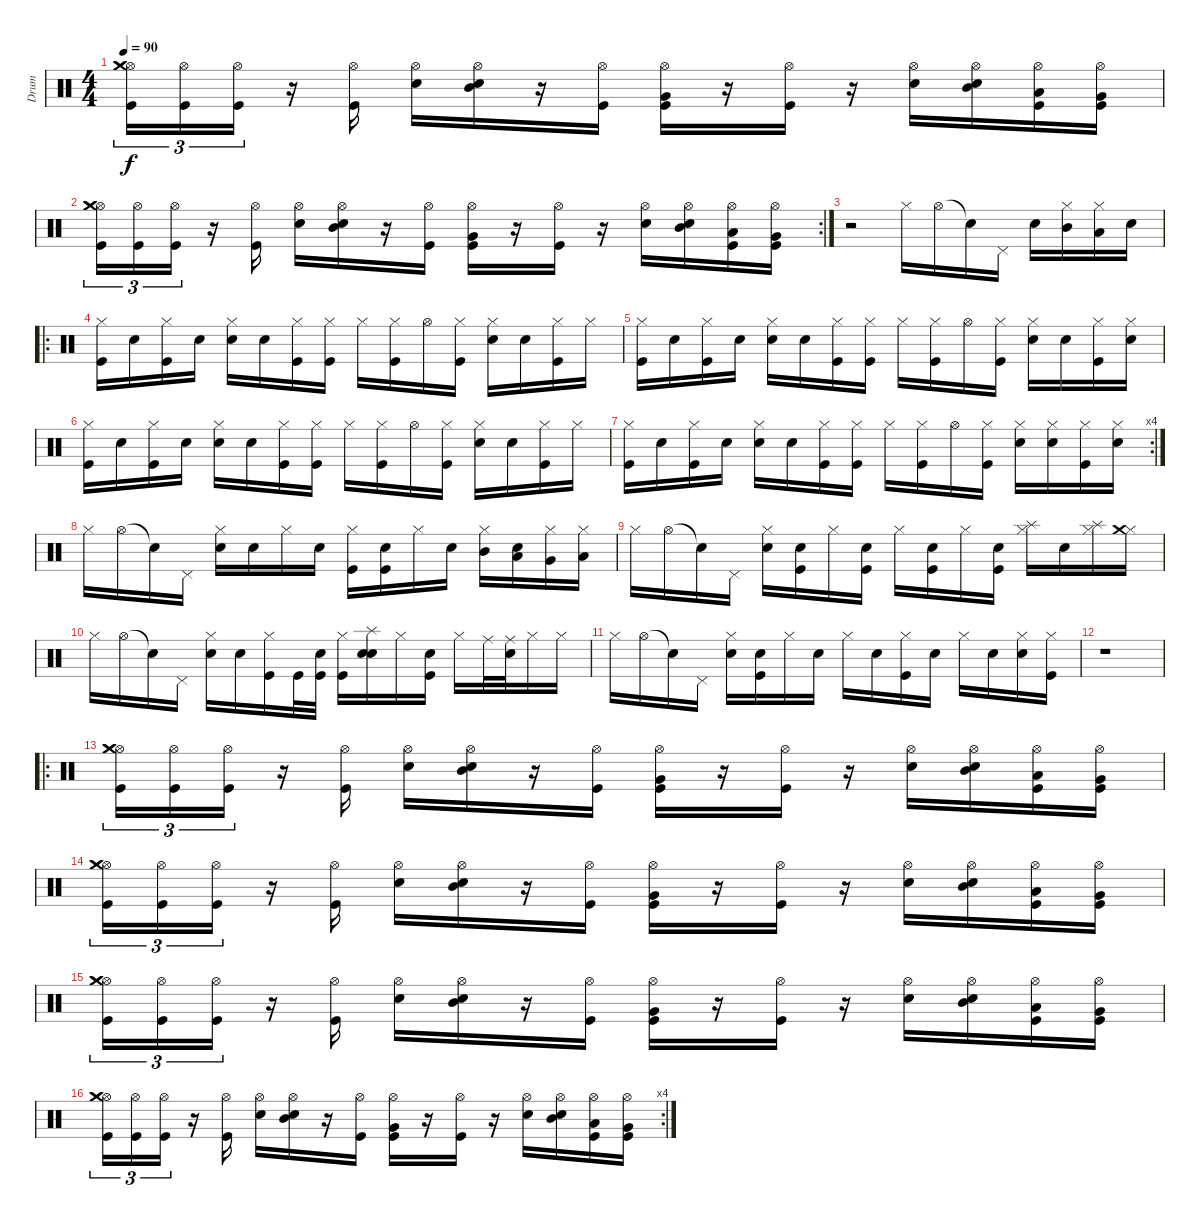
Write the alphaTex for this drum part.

\track ("Drum" "Drum") {instrument percussion}
\staff {score}
\articulation defaults
\ts (4 4)
\tempo 90
\clef neutral
\ks c
("Hi-Hat (open)" "Crash medium (hit)" "Crash medium (hit)" "Kick (hit)").16{tu (3 2) dy f} ("Hi-Hat (open)" "Kick (hit)").16{tu (3 2)} ("Hi-Hat (open)" "Kick (hit)").16{tu (3 2)} r.16 ("Hi-Hat (open)" "Kick (hit)").16 ("Hi-Hat (open)" "Snare (hit) 2").16 ("Hi-Hat (open)" "Mid Tom (hit)" "Snare (hit) 2").16 r.16 ("Hi-Hat (open)" "Kick (hit)").16 ("Hi-Hat (open)" "Very Low Tom (hit)" "Kick (hit)").16 r.16 ("Hi-Hat (open)" "Kick (hit)").16 r.16 ("Hi-Hat (open)" "Snare (hit) 2").16 ("Hi-Hat (open)" "Mid Tom (hit)" "Snare (hit) 2").16 ("Hi-Hat (open)" "Low Tom (hit)" "Kick (hit)").16 ("Hi-Hat (open)" "Very Low Tom (hit)" "Kick (hit)").16 |
\rc 2
("Hi-Hat (open)" "Crash medium (hit)" "Crash medium (hit)" "Kick (hit)").16{tu (3 2)} ("Hi-Hat (open)" "Kick (hit)").16{tu (3 2)} ("Hi-Hat (open)" "Kick (hit)").16{tu (3 2)} r.16 ("Hi-Hat (open)" "Kick (hit)").16 ("Hi-Hat (open)" "Snare (hit) 2").16 ("Hi-Hat (open)" "Mid Tom (hit)" "Snare (hit) 2").16 r.16 ("Hi-Hat (open)" "Kick (hit)").16 ("Hi-Hat (open)" "Very Low Tom (hit)" "Kick (hit)").16 r.16 ("Hi-Hat (open)" "Kick (hit)").16 r.16 ("Hi-Hat (open)" "Snare (hit) 2").16 ("Hi-Hat (open)" "Mid Tom (hit)" "Snare (hit) 2").16 ("Hi-Hat (open)" "Low Tom (hit)" "Kick (hit)").16 ("Hi-Hat (open)" "Very Low Tom (hit)" "Kick (hit)").16 |
r.2 "Hi-Hat (closed)".16 "Hi-Hat (open)".16 "Snare (hit)"{t}.16 "Pedal Hi-Hat (hit)".16 "Snare (hit)".16 ("Hi-Hat (closed)" "Mid Tom (hit)").16 ("Hi-Hat (closed)" "Low Tom (hit)").16 "Snare (hit)".16 |
\ro
("Hi-Hat (closed)" "Kick (hit)").16 "Snare (hit)".16 ("Hi-Hat (closed)" "Kick (hit)").16 "Snare (hit)".16 ("Hi-Hat (closed)" "Snare (hit) 2").16 "Snare (hit)".16 ("Hi-Hat (closed)" "Kick (hit)").16 ("Hi-Hat (closed)" "Kick (hit)").16 "Hi-Hat (closed)".16 ("Hi-Hat (closed)" "Kick (hit)").16 "Hi-Hat (open)".16 ("Hi-Hat (closed)" "Kick (hit)").16 ("Hi-Hat (closed)" "Snare (hit) 2").16 "Snare (hit)".16 ("Hi-Hat (closed)" "Kick (hit)").16 "Hi-Hat (closed)".16 |
("Hi-Hat (closed)" "Kick (hit)").16 "Snare (hit)".16 ("Hi-Hat (closed)" "Kick (hit)").16 "Snare (hit)".16 ("Hi-Hat (closed)" "Snare (hit) 2").16 "Snare (hit)".16 ("Hi-Hat (closed)" "Kick (hit)").16 ("Hi-Hat (closed)" "Kick (hit)").16 "Hi-Hat (closed)".16 ("Hi-Hat (closed)" "Kick (hit)").16 "Hi-Hat (open)".16 ("Hi-Hat (closed)" "Kick (hit)").16 ("Hi-Hat (closed)" "Snare (hit) 2").16 "Snare (hit)".16 ("Hi-Hat (closed)" "Kick (hit)").16 ("Hi-Hat (closed)" "Snare (hit) 2").16 |
("Hi-Hat (closed)" "Kick (hit)").16 "Snare (hit)".16 ("Hi-Hat (closed)" "Kick (hit)").16 "Snare (hit)".16 ("Hi-Hat (closed)" "Snare (hit) 2").16 "Snare (hit)".16 ("Hi-Hat (closed)" "Kick (hit)").16 ("Hi-Hat (closed)" "Kick (hit)").16 "Hi-Hat (closed)".16 ("Hi-Hat (closed)" "Kick (hit)").16 "Hi-Hat (open)".16 ("Hi-Hat (closed)" "Kick (hit)").16 ("Hi-Hat (closed)" "Snare (hit) 2").16 "Snare (hit)".16 ("Hi-Hat (closed)" "Kick (hit)").16 "Hi-Hat (closed)".16 |
\rc 4
("Hi-Hat (closed)" "Kick (hit)").16 "Snare (hit)".16 ("Hi-Hat (closed)" "Kick (hit)").16 "Snare (hit)".16 ("Hi-Hat (closed)" "Snare (hit) 2").16 "Snare (hit)".16 ("Hi-Hat (closed)" "Kick (hit)").16 ("Hi-Hat (closed)" "Kick (hit)").16 "Hi-Hat (closed)".16 ("Hi-Hat (closed)" "Kick (hit)").16 "Hi-Hat (open)".16 ("Hi-Hat (closed)" "Kick (hit)").16 ("Hi-Hat (closed)" "Snare (hit) 2").16 ("Hi-Hat (closed)" "Snare (hit) 2").16 ("Hi-Hat (closed)" "Kick (hit)").16 ("Hi-Hat (closed)" "Snare (hit) 2").16 |
"Hi-Hat (closed)".16 "Hi-Hat (open)".16 "Snare (hit)"{t}.16 "Pedal Hi-Hat (hit)".16 ("Hi-Hat (closed)" "Snare (hit) 2").16 "Snare (hit)".16 "Hi-Hat (closed)".16 "Snare (hit)".16 ("Hi-Hat (closed)" "Kick (hit)").16 ("Snare (hit)" "Kick (hit)").16 "Hi-Hat (closed)".16 "Snare (hit)".16 ("Hi-Hat (closed)" "Mid Tom (hit)").16 ("Snare (hit)" "Low Tom (hit)").16 ("Hi-Hat (closed)" "Very Low Tom (hit)").16 ("Hi-Hat (closed)" "Low Floor Tom (hit)").16 |
"Hi-Hat (closed)".16 "Hi-Hat (open)".16 "Snare (hit)"{t}.16 "Pedal Hi-Hat (hit)".16 ("Hi-Hat (closed)" "Snare (hit) 2").16 ("Snare (hit)" "Kick (hit)").16 "Hi-Hat (closed)".16 ("Snare (hit)" "Kick (hit)").16 "Hi-Hat (closed)".16 ("Snare (hit)" "Kick (hit)").16 "Hi-Hat (closed)".16 ("Snare (hit)" "Kick (hit)").16 ("Hi-Hat (closed)" "Splash (hit)").16 "Snare (hit)".16 ("Hi-Hat (closed)" "Splash (hit)").16 ("Hi-Hat (closed)" "Crash medium (hit)").16 |
"Hi-Hat (closed)".16 "Hi-Hat (open)".16 "Snare (hit)"{t}.16 "Pedal Hi-Hat (hit)".16 ("Hi-Hat (closed)" "Snare (hit) 2").16 "Snare (hit)".16 ("Hi-Hat (closed)" "Kick (hit)").16 "Kick (hit)".32 ("Snare (hit)" "Kick (hit)").32 ("Hi-Hat (closed)" "Kick (hit)").16 ("Snare (hit)" "Splash (hit)" "Snare (hit) 2").16 "Hi-Hat (closed)".16 ("Snare (hit)" "Kick (hit)").16 "Hi-Hat (closed)".16 "Ride (middle)".32 ("Snare (hit)" "Ride (middle)").32 "Hi-Hat (closed)".16 "Hi-Hat (closed)".16 |
"Hi-Hat (closed)".16 "Hi-Hat (open)".16 "Snare (hit)"{t}.16 "Pedal Hi-Hat (hit)".16 ("Hi-Hat (closed)" "Snare (hit) 2").16 ("Snare (hit)" "Kick (hit)").16 "Hi-Hat (closed)".16 "Snare (hit)".16 "Hi-Hat (closed)".16 "Snare (hit)".16 ("Hi-Hat (closed)" "Kick (hit)").16 "Snare (hit)".16 "Hi-Hat (closed)".16 "Snare (hit)".16 ("Hi-Hat (closed)" "Snare (hit) 2").16 ("Hi-Hat (closed)" "Kick (hit)").16 |
r.1 |
\ro
("Hi-Hat (open)" "Crash medium (hit)" "Crash medium (hit)" "Kick (hit)").16{tu (3 2)} ("Hi-Hat (open)" "Kick (hit)").16{tu (3 2)} ("Hi-Hat (open)" "Kick (hit)").16{tu (3 2)} r.16 ("Hi-Hat (open)" "Kick (hit)").16 ("Hi-Hat (open)" "Snare (hit) 2").16 ("Hi-Hat (open)" "Mid Tom (hit)" "Snare (hit) 2").16 r.16 ("Hi-Hat (open)" "Kick (hit)").16 ("Hi-Hat (open)" "Very Low Tom (hit)" "Kick (hit)").16 r.16 ("Hi-Hat (open)" "Kick (hit)").16 r.16 ("Hi-Hat (open)" "Snare (hit) 2").16 ("Hi-Hat (open)" "Mid Tom (hit)" "Snare (hit) 2").16 ("Hi-Hat (open)" "Low Tom (hit)" "Kick (hit)").16 ("Hi-Hat (open)" "Very Low Tom (hit)" "Kick (hit)").16 |
("Hi-Hat (open)" "Crash medium (hit)" "Crash medium (hit)" "Kick (hit)").16{tu (3 2)} ("Hi-Hat (open)" "Kick (hit)").16{tu (3 2)} ("Hi-Hat (open)" "Kick (hit)").16{tu (3 2)} r.16 ("Hi-Hat (open)" "Kick (hit)").16 ("Hi-Hat (open)" "Snare (hit) 2").16 ("Hi-Hat (open)" "Mid Tom (hit)" "Snare (hit) 2").16 r.16 ("Hi-Hat (open)" "Kick (hit)").16 ("Hi-Hat (open)" "Very Low Tom (hit)" "Kick (hit)").16 r.16 ("Hi-Hat (open)" "Kick (hit)").16 r.16 ("Hi-Hat (open)" "Snare (hit) 2").16 ("Hi-Hat (open)" "Mid Tom (hit)" "Snare (hit) 2").16 ("Hi-Hat (open)" "Low Tom (hit)" "Kick (hit)").16 ("Hi-Hat (open)" "Very Low Tom (hit)" "Kick (hit)").16 |
("Hi-Hat (open)" "Crash medium (hit)" "Crash medium (hit)" "Kick (hit)").16{tu (3 2)} ("Hi-Hat (open)" "Kick (hit)").16{tu (3 2)} ("Hi-Hat (open)" "Kick (hit)").16{tu (3 2)} r.16 ("Hi-Hat (open)" "Kick (hit)").16 ("Hi-Hat (open)" "Snare (hit) 2").16 ("Hi-Hat (open)" "Mid Tom (hit)" "Snare (hit) 2").16 r.16 ("Hi-Hat (open)" "Kick (hit)").16 ("Hi-Hat (open)" "Very Low Tom (hit)" "Kick (hit)").16 r.16 ("Hi-Hat (open)" "Kick (hit)").16 r.16 ("Hi-Hat (open)" "Snare (hit) 2").16 ("Hi-Hat (open)" "Mid Tom (hit)" "Snare (hit) 2").16 ("Hi-Hat (open)" "Low Tom (hit)" "Kick (hit)").16 ("Hi-Hat (open)" "Very Low Tom (hit)" "Kick (hit)").16 |
\rc 4
("Hi-Hat (open)" "Crash medium (hit)" "Crash medium (hit)" "Kick (hit)").16{tu (3 2)} ("Hi-Hat (open)" "Kick (hit)").16{tu (3 2)} ("Hi-Hat (open)" "Kick (hit)").16{tu (3 2)} r.16 ("Hi-Hat (open)" "Kick (hit)").16 ("Hi-Hat (open)" "Snare (hit) 2").16 ("Hi-Hat (open)" "Mid Tom (hit)" "Snare (hit) 2").16 r.16 ("Hi-Hat (open)" "Kick (hit)").16 ("Hi-Hat (open)" "Very Low Tom (hit)" "Kick (hit)").16 r.16 ("Hi-Hat (open)" "Kick (hit)").16 r.16 ("Hi-Hat (open)" "Snare (hit) 2").16 ("Hi-Hat (open)" "Mid Tom (hit)" "Snare (hit) 2").16 ("Hi-Hat (open)" "Low Tom (hit)" "Kick (hit)").16 ("Hi-Hat (open)" "Very Low Tom (hit)" "Kick (hit)").16
